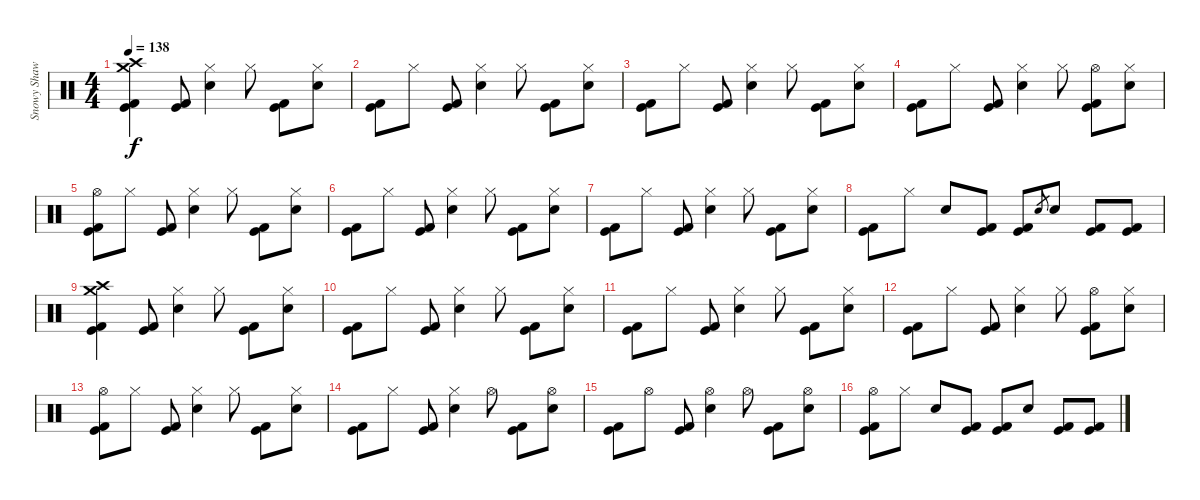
\track ("Snowy Shaw - Drums" "Snowy Shaw") {instrument percussion}
\staff {score}
\articulation defaults
\ts (4 4)
\tempo 138
\clef neutral
\ks c
("Crash medium (hit)" "Crash high (hit)" "Kick (hit)" "Kick (hit) 2").4{dy f} ("Kick (hit)" "Kick (hit) 2").8 ("Hi-Hat (closed)" "Electric Snare (hit)").4 "Hi-Hat (closed)".8 ("Kick (hit)" "Kick (hit) 2").8 ("Hi-Hat (closed)" "Electric Snare (hit)").8 |
("Kick (hit)" "Kick (hit) 2").8 "Hi-Hat (closed)".8 ("Kick (hit)" "Kick (hit) 2").8 ("Hi-Hat (closed)" "Electric Snare (hit)").4 "Hi-Hat (closed)".8 ("Kick (hit)" "Kick (hit) 2").8 ("Hi-Hat (closed)" "Electric Snare (hit)").8 |
("Kick (hit)" "Kick (hit) 2").8 "Hi-Hat (closed)".8 ("Kick (hit)" "Kick (hit) 2").8 ("Hi-Hat (closed)" "Electric Snare (hit)").4 "Hi-Hat (closed)".8 ("Kick (hit)" "Kick (hit) 2").8 ("Hi-Hat (closed)" "Electric Snare (hit)").8 |
("Kick (hit)" "Kick (hit) 2").8 "Hi-Hat (closed)".8 ("Kick (hit)" "Kick (hit) 2").8 ("Hi-Hat (closed)" "Electric Snare (hit)").4 "Hi-Hat (closed)".8 ("Hi-Hat (open)" "Kick (hit)" "Kick (hit) 2").8 ("Hi-Hat (closed)" "Electric Snare (hit)").8 |
("Hi-Hat (open)" "Kick (hit)" "Kick (hit) 2").8 "Hi-Hat (closed)".8 ("Kick (hit)" "Kick (hit) 2").8 ("Hi-Hat (closed)" "Electric Snare (hit)").4 "Hi-Hat (closed)".8 ("Kick (hit)" "Kick (hit) 2").8 ("Hi-Hat (closed)" "Electric Snare (hit)").8 |
("Kick (hit)" "Kick (hit) 2").8 "Hi-Hat (closed)".8 ("Kick (hit)" "Kick (hit) 2").8 ("Hi-Hat (closed)" "Electric Snare (hit)").4 "Hi-Hat (closed)".8 ("Kick (hit)" "Kick (hit) 2").8 ("Hi-Hat (closed)" "Electric Snare (hit)").8 |
("Kick (hit)" "Kick (hit) 2").8 "Hi-Hat (closed)".8 ("Kick (hit)" "Kick (hit) 2").8 ("Hi-Hat (closed)" "Electric Snare (hit)").4 "Hi-Hat (closed)".8 ("Kick (hit)" "Kick (hit) 2").8 ("Hi-Hat (closed)" "Electric Snare (hit)").8 |
("Kick (hit)" "Kick (hit) 2").8 "Hi-Hat (closed)".8 "Electric Snare (hit)".8 ("Kick (hit)" "Kick (hit) 2").8 ("Kick (hit)" "Kick (hit) 2").8 "Electric Snare (hit)".8{gr} "Electric Snare (hit)".8 ("Kick (hit)" "Kick (hit) 2").8 ("Kick (hit)" "Kick (hit) 2").8 |
("Crash medium (hit)" "Crash high (hit)" "Kick (hit)" "Kick (hit) 2").4 ("Kick (hit)" "Kick (hit) 2").8 ("Hi-Hat (closed)" "Electric Snare (hit)").4 "Hi-Hat (closed)".8 ("Kick (hit)" "Kick (hit) 2").8 ("Hi-Hat (closed)" "Electric Snare (hit)").8 |
("Kick (hit)" "Kick (hit) 2").8 "Hi-Hat (closed)".8 ("Kick (hit)" "Kick (hit) 2").8 ("Hi-Hat (closed)" "Electric Snare (hit)").4 "Hi-Hat (closed)".8 ("Kick (hit)" "Kick (hit) 2").8 ("Hi-Hat (closed)" "Electric Snare (hit)").8 |
("Kick (hit)" "Kick (hit) 2").8 "Hi-Hat (closed)".8 ("Kick (hit)" "Kick (hit) 2").8 ("Hi-Hat (closed)" "Electric Snare (hit)").4 "Hi-Hat (closed)".8 ("Kick (hit)" "Kick (hit) 2").8 ("Hi-Hat (closed)" "Electric Snare (hit)").8 |
("Kick (hit)" "Kick (hit) 2").8 "Hi-Hat (closed)".8 ("Kick (hit)" "Kick (hit) 2").8 ("Hi-Hat (closed)" "Electric Snare (hit)").4 "Hi-Hat (closed)".8 ("Hi-Hat (open)" "Kick (hit)" "Kick (hit) 2").8 ("Hi-Hat (closed)" "Electric Snare (hit)").8 |
("Hi-Hat (open)" "Kick (hit)" "Kick (hit) 2").8 "Hi-Hat (closed)".8 ("Kick (hit)" "Kick (hit) 2").8 ("Hi-Hat (closed)" "Electric Snare (hit)").4 "Hi-Hat (closed)".8 ("Kick (hit)" "Kick (hit) 2").8 ("Hi-Hat (closed)" "Electric Snare (hit)").8 |
("Kick (hit)" "Kick (hit) 2").8 "Hi-Hat (closed)".8 ("Kick (hit)" "Kick (hit) 2").8 ("Hi-Hat (closed)" "Electric Snare (hit)").4 "Hi-Hat (open)".8 ("Kick (hit)" "Kick (hit) 2").8 ("Hi-Hat (open)" "Electric Snare (hit)").8 |
("Kick (hit)" "Kick (hit) 2").8 "Hi-Hat (open)".8 ("Kick (hit)" "Kick (hit) 2").8 ("Hi-Hat (open)" "Electric Snare (hit)").4 "Hi-Hat (open)".8 ("Kick (hit)" "Kick (hit) 2").8 ("Hi-Hat (open)" "Electric Snare (hit)").8 |
("Hi-Hat (open)" "Kick (hit)" "Kick (hit) 2").8 "Hi-Hat (closed)".8 "Electric Snare (hit)".8 ("Kick (hit)" "Kick (hit) 2").8 ("Kick (hit)" "Kick (hit) 2").8 "Electric Snare (hit)".8 ("Kick (hit)" "Kick (hit) 2").8 ("Kick (hit)" "Kick (hit) 2").8
